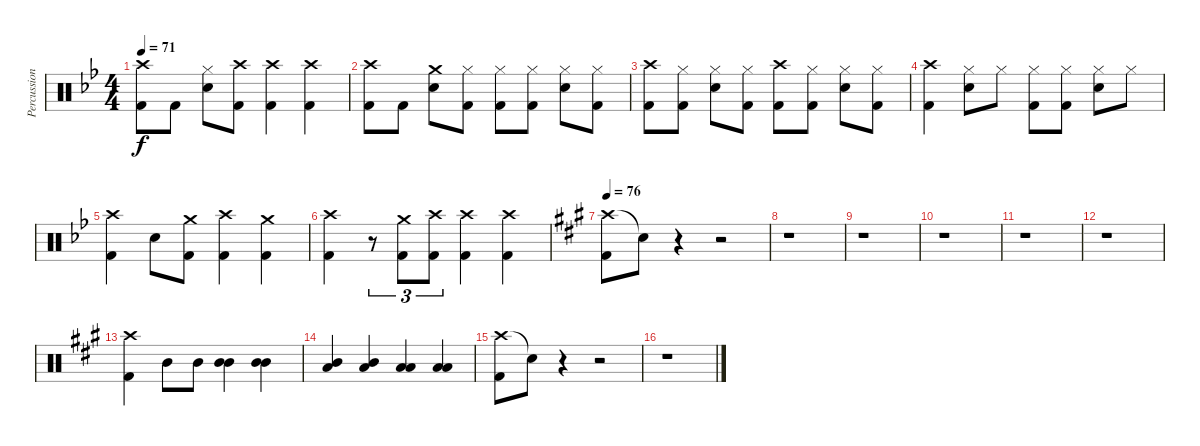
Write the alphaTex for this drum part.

\track ("Percussion" "Percussion") {instrument percussion}
\staff {score}
\articulation defaults
\ts (4 4)
\tempo 71
\clef neutral
\ks bb
("Crash high (hit)" "Kick (hit) 2").8{dy f} "Kick (hit) 2".8 ("Hi-Hat (closed)" "Snare (hit) 2").8 ("Crash high (hit)" "Kick (hit) 2").8 ("Crash high (hit)" "Kick (hit) 2").4 ("Crash high (hit)" "Kick (hit) 2").4 |
("Crash high (hit)" "Kick (hit) 2").8 "Kick (hit) 2".8 ("Crash medium (hit)" "Snare (hit) 2").8 ("Hi-Hat (closed)" "Kick (hit) 2").8 ("Hi-Hat (closed)" "Kick (hit) 2").8 ("Hi-Hat (closed)" "Kick (hit) 2").8 ("Hi-Hat (closed)" "Snare (hit) 2").8 ("Hi-Hat (closed)" "Kick (hit) 2").8 |
("Crash high (hit)" "Kick (hit) 2").8 ("Hi-Hat (closed)" "Kick (hit) 2").8 ("Hi-Hat (closed)" "Snare (hit) 2").8 ("Hi-Hat (closed)" "Kick (hit) 2").8 ("Crash high (hit)" "Kick (hit) 2").8 ("Hi-Hat (closed)" "Kick (hit) 2").8 ("Hi-Hat (closed)" "Snare (hit) 2").8 ("Hi-Hat (closed)" "Kick (hit) 2").8 |
("Crash high (hit)" "Kick (hit) 2").4 ("Hi-Hat (closed)" "Snare (hit) 2").8 "Hi-Hat (closed)".8 ("Hi-Hat (closed)" "Kick (hit) 2").8 ("Hi-Hat (closed)" "Kick (hit) 2").8 ("Hi-Hat (closed)" "Snare (hit) 2").8 "Hi-Hat (closed)".8 |
("Crash high (hit)" "Kick (hit) 2").4 "Snare (hit) 2".8 ("Crash medium (hit)" "Kick (hit) 2").8 ("Crash high (hit)" "Kick (hit) 2").4 ("Crash medium (hit)" "Kick (hit) 2").4 |
("Crash high (hit)" "Kick (hit) 2").4 r.8{tu (3 2)} ("Crash medium (hit)" "Kick (hit) 2").8{tu (3 2)} ("Crash high (hit)" "Kick (hit) 2").8{tu (3 2)} ("Crash high (hit)" "Kick (hit) 2").4 ("Crash high (hit)" "Kick (hit) 2").4 |
\tempo 76
\ks a
("Crash high (hit)" "Kick (hit) 2").8 "Snare (hit)"{t}.8 r.4 r.2 |
r.1 |
r.1 |
r.1 |
r.1 |
r.1 |
("Crash high (hit)" "Kick (hit) 2").4 "Mid Tom (hit)".8 "Mid Tom (hit)".8 ("Mid Tom (hit)" "Mid Tom (hit)").4 ("Mid Tom (hit)" "Mid Tom (hit)").4 |
("Mid Tom (hit)" "Low Tom (hit)").4 ("Mid Tom (hit)" "Low Tom (hit)").4 ("Low Tom (hit)" "Low Tom (hit)").4 ("Low Tom (hit)" "Low Tom (hit)").4 |
("Crash high (hit)" "Kick (hit) 2").8 "Snare (hit)"{t}.8 r.4 r.2 |
r.1
